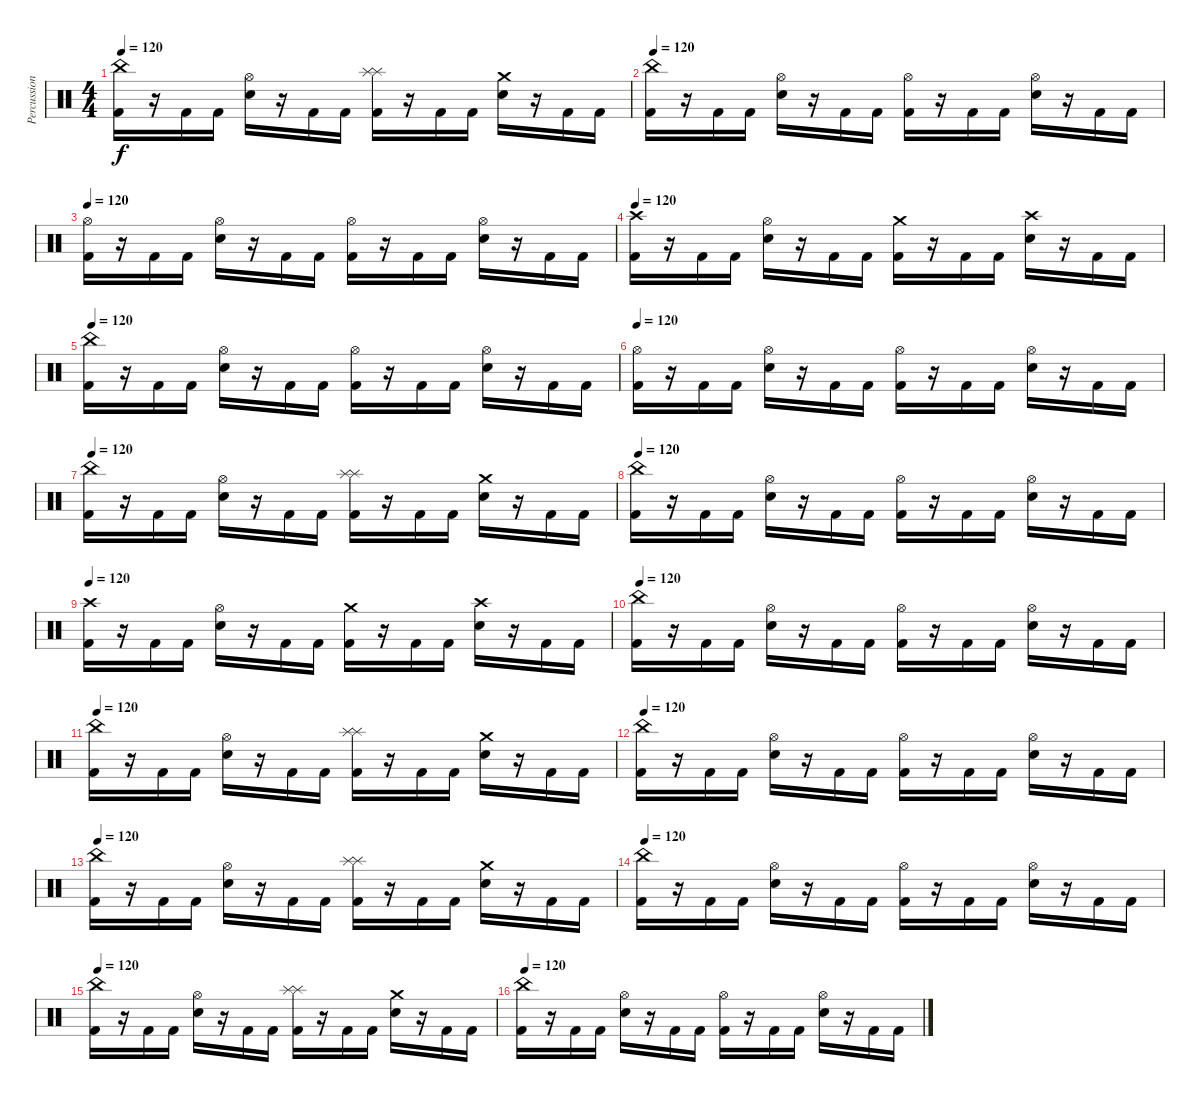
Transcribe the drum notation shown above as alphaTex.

\track ("Percussion" "Percussion") {instrument percussion}
\staff {score}
\articulation defaults
\ts (4 4)
\tempo 120
\clef neutral
\ks c
("China (hit)" "Kick (hit) 2").16{dy f} r.16 "Kick (hit) 2".16 "Kick (hit) 2".16 ("Hi-Hat (open)" "Snare (hit) 2").16 r.16 "Kick (hit) 2".16 "Kick (hit) 2".16 ("Splash (hit)" "Splash (hit)" "Kick (hit) 2").16 r.16 "Kick (hit) 2".16 "Kick (hit) 2".16 ("Crash medium (hit)" "Snare (hit) 2").16 r.16 "Kick (hit) 2".16 "Kick (hit) 2".16 |
\tempo 120
("China (hit)" "Kick (hit) 2").16 r.16 "Kick (hit) 2".16 "Kick (hit) 2".16 ("Hi-Hat (open)" "Snare (hit) 2").16 r.16 "Kick (hit) 2".16 "Kick (hit) 2".16 ("Hi-Hat (open)" "Kick (hit) 2").16 r.16 "Kick (hit) 2".16 "Kick (hit) 2".16 ("Hi-Hat (open)" "Snare (hit) 2").16 r.16 "Kick (hit) 2".16 "Kick (hit) 2".16 |
\tempo 120
("Hi-Hat (open)" "Kick (hit) 2").16 r.16 "Kick (hit) 2".16 "Kick (hit) 2".16 ("Hi-Hat (open)" "Snare (hit) 2").16 r.16 "Kick (hit) 2".16 "Kick (hit) 2".16 ("Hi-Hat (open)" "Kick (hit) 2").16 r.16 "Kick (hit) 2".16 "Kick (hit) 2".16 ("Hi-Hat (open)" "Snare (hit) 2").16 r.16 "Kick (hit) 2".16 "Kick (hit) 2".16 |
\tempo 120
("Crash high (hit)" "Kick (hit) 2").16 r.16 "Kick (hit) 2".16 "Kick (hit) 2".16 ("Hi-Hat (open)" "Snare (hit) 2").16 r.16 "Kick (hit) 2".16 "Kick (hit) 2".16 ("Crash medium (hit)" "Kick (hit) 2").16 r.16 "Kick (hit) 2".16 "Kick (hit) 2".16 ("Crash high (hit)" "Snare (hit) 2").16 r.16 "Kick (hit) 2".16 "Kick (hit) 2".16 |
\tempo 120
("China (hit)" "Kick (hit) 2").16 r.16 "Kick (hit) 2".16 "Kick (hit) 2".16 ("Hi-Hat (open)" "Snare (hit) 2").16 r.16 "Kick (hit) 2".16 "Kick (hit) 2".16 ("Hi-Hat (open)" "Kick (hit) 2").16 r.16 "Kick (hit) 2".16 "Kick (hit) 2".16 ("Hi-Hat (open)" "Snare (hit) 2").16 r.16 "Kick (hit) 2".16 "Kick (hit) 2".16 |
\tempo 120
("Hi-Hat (open)" "Kick (hit) 2").16 r.16 "Kick (hit) 2".16 "Kick (hit) 2".16 ("Hi-Hat (open)" "Snare (hit) 2").16 r.16 "Kick (hit) 2".16 "Kick (hit) 2".16 ("Hi-Hat (open)" "Kick (hit) 2").16 r.16 "Kick (hit) 2".16 "Kick (hit) 2".16 ("Hi-Hat (open)" "Snare (hit) 2").16 r.16 "Kick (hit) 2".16 "Kick (hit) 2".16 |
\tempo 120
("China (hit)" "Kick (hit) 2").16 r.16 "Kick (hit) 2".16 "Kick (hit) 2".16 ("Hi-Hat (open)" "Snare (hit) 2").16 r.16 "Kick (hit) 2".16 "Kick (hit) 2".16 ("Splash (hit)" "Splash (hit)" "Kick (hit) 2").16 r.16 "Kick (hit) 2".16 "Kick (hit) 2".16 ("Crash medium (hit)" "Snare (hit) 2").16 r.16 "Kick (hit) 2".16 "Kick (hit) 2".16 |
\tempo 120
("China (hit)" "Kick (hit) 2").16 r.16 "Kick (hit) 2".16 "Kick (hit) 2".16 ("Hi-Hat (open)" "Snare (hit) 2").16 r.16 "Kick (hit) 2".16 "Kick (hit) 2".16 ("Hi-Hat (open)" "Kick (hit) 2").16 r.16 "Kick (hit) 2".16 "Kick (hit) 2".16 ("Hi-Hat (open)" "Snare (hit) 2").16 r.16 "Kick (hit) 2".16 "Kick (hit) 2".16 |
\tempo 120
("Crash high (hit)" "Kick (hit) 2").16 r.16 "Kick (hit) 2".16 "Kick (hit) 2".16 ("Hi-Hat (open)" "Snare (hit) 2").16 r.16 "Kick (hit) 2".16 "Kick (hit) 2".16 ("Crash medium (hit)" "Kick (hit) 2").16 r.16 "Kick (hit) 2".16 "Kick (hit) 2".16 ("Crash high (hit)" "Snare (hit) 2").16 r.16 "Kick (hit) 2".16 "Kick (hit) 2".16 |
\tempo 120
("China (hit)" "Kick (hit) 2").16 r.16 "Kick (hit) 2".16 "Kick (hit) 2".16 ("Hi-Hat (open)" "Snare (hit) 2").16 r.16 "Kick (hit) 2".16 "Kick (hit) 2".16 ("Hi-Hat (open)" "Kick (hit) 2").16 r.16 "Kick (hit) 2".16 "Kick (hit) 2".16 ("Hi-Hat (open)" "Snare (hit) 2").16 r.16 "Kick (hit) 2".16 "Kick (hit) 2".16 |
\tempo 120
("China (hit)" "Kick (hit) 2").16 r.16 "Kick (hit) 2".16 "Kick (hit) 2".16 ("Hi-Hat (open)" "Snare (hit) 2").16 r.16 "Kick (hit) 2".16 "Kick (hit) 2".16 ("Splash (hit)" "Splash (hit)" "Kick (hit) 2").16 r.16 "Kick (hit) 2".16 "Kick (hit) 2".16 ("Crash medium (hit)" "Snare (hit) 2").16 r.16 "Kick (hit) 2".16 "Kick (hit) 2".16 |
\tempo 120
("China (hit)" "Kick (hit) 2").16 r.16 "Kick (hit) 2".16 "Kick (hit) 2".16 ("Hi-Hat (open)" "Snare (hit) 2").16 r.16 "Kick (hit) 2".16 "Kick (hit) 2".16 ("Hi-Hat (open)" "Kick (hit) 2").16 r.16 "Kick (hit) 2".16 "Kick (hit) 2".16 ("Hi-Hat (open)" "Snare (hit) 2").16 r.16 "Kick (hit) 2".16 "Kick (hit) 2".16 |
\tempo 120
("China (hit)" "Kick (hit) 2").16 r.16 "Kick (hit) 2".16 "Kick (hit) 2".16 ("Hi-Hat (open)" "Snare (hit) 2").16 r.16 "Kick (hit) 2".16 "Kick (hit) 2".16 ("Splash (hit)" "Splash (hit)" "Kick (hit) 2").16 r.16 "Kick (hit) 2".16 "Kick (hit) 2".16 ("Crash medium (hit)" "Snare (hit) 2").16 r.16 "Kick (hit) 2".16 "Kick (hit) 2".16 |
\tempo 120
("China (hit)" "Kick (hit) 2").16 r.16 "Kick (hit) 2".16 "Kick (hit) 2".16 ("Hi-Hat (open)" "Snare (hit) 2").16 r.16 "Kick (hit) 2".16 "Kick (hit) 2".16 ("Hi-Hat (open)" "Kick (hit) 2").16 r.16 "Kick (hit) 2".16 "Kick (hit) 2".16 ("Hi-Hat (open)" "Snare (hit) 2").16 r.16 "Kick (hit) 2".16 "Kick (hit) 2".16 |
\tempo 120
("China (hit)" "Kick (hit) 2").16{volume 12} r.16 "Kick (hit) 2".16 "Kick (hit) 2".16 ("Hi-Hat (open)" "Snare (hit) 2").16 r.16 "Kick (hit) 2".16 "Kick (hit) 2".16 ("Splash (hit)" "Splash (hit)" "Kick (hit) 2").16 r.16 "Kick (hit) 2".16 "Kick (hit) 2".16 ("Crash medium (hit)" "Snare (hit) 2").16 r.16 "Kick (hit) 2".16 "Kick (hit) 2".16 |
\tempo 120
("China (hit)" "Kick (hit) 2").16 r.16 "Kick (hit) 2".16 "Kick (hit) 2".16 ("Hi-Hat (open)" "Snare (hit) 2").16 r.16 "Kick (hit) 2".16 "Kick (hit) 2".16 ("Hi-Hat (open)" "Kick (hit) 2").16 r.16 "Kick (hit) 2".16 "Kick (hit) 2".16 ("Hi-Hat (open)" "Snare (hit) 2").16 r.16 "Kick (hit) 2".16 "Kick (hit) 2".16
